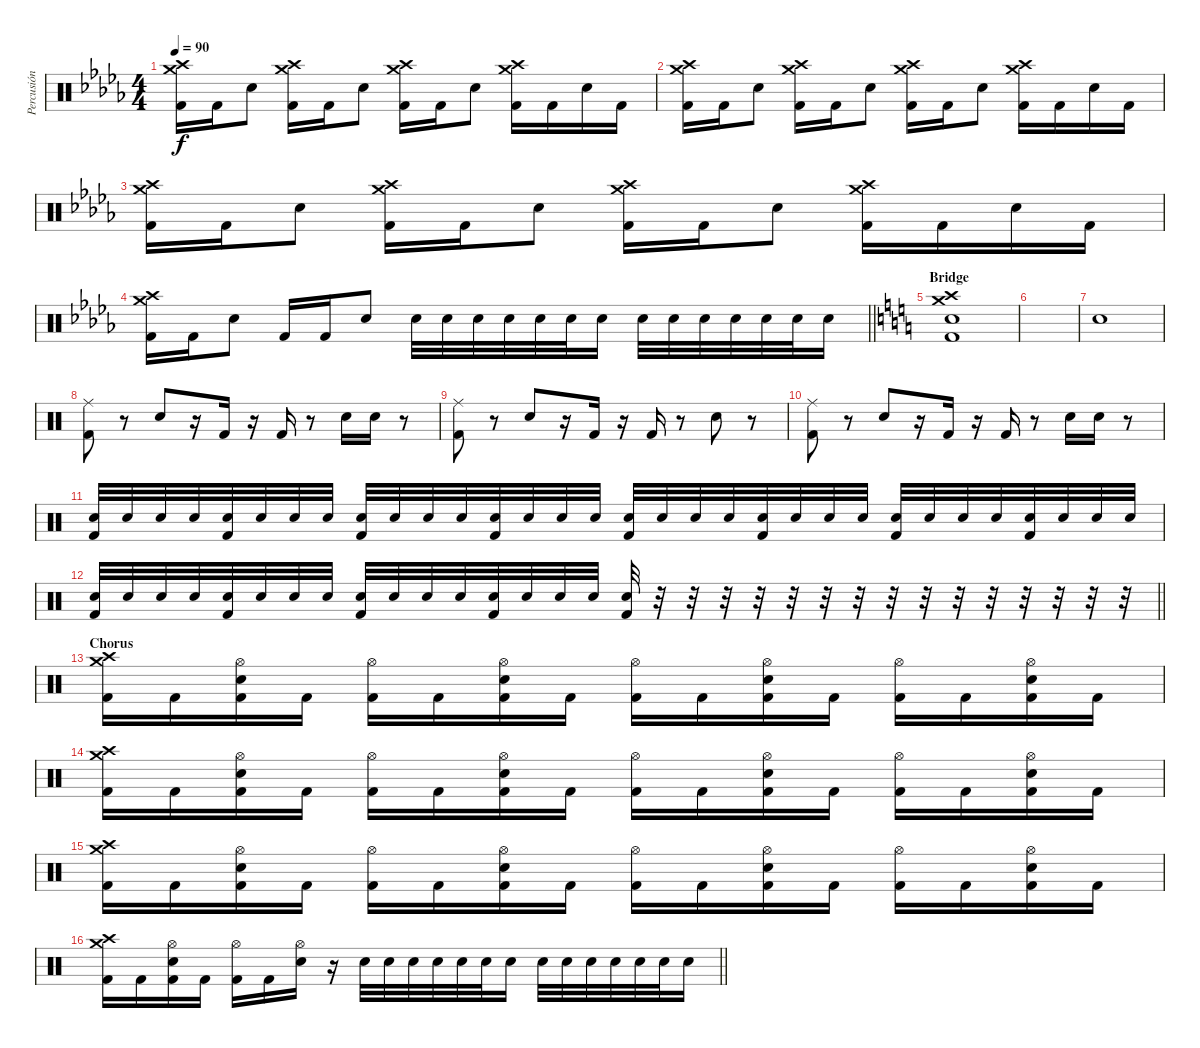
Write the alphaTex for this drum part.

\track ("Percusión" "Percusión") {instrument percussion}
\staff {score}
\articulation defaults
\ts (4 4)
\tempo 90
\clef neutral
\ks db
("Crash high (hit)" "Crash medium (hit)" "Kick (hit) 2").16{dy f} "Kick (hit) 2".16 "Snare (hit) 2".8 ("Crash high (hit)" "Crash medium (hit)" "Kick (hit) 2").16 "Kick (hit) 2".16 "Snare (hit) 2".8 ("Crash high (hit)" "Crash medium (hit)" "Kick (hit) 2").16 "Kick (hit) 2".16 "Snare (hit) 2".8 ("Crash high (hit)" "Crash medium (hit)" "Kick (hit) 2").16 "Kick (hit) 2".16 "Snare (hit) 2".16 "Kick (hit) 2".16 |
("Crash high (hit)" "Crash medium (hit)" "Kick (hit) 2").16 "Kick (hit) 2".16 "Snare (hit) 2".8 ("Crash high (hit)" "Crash medium (hit)" "Kick (hit) 2").16 "Kick (hit) 2".16 "Snare (hit) 2".8 ("Crash high (hit)" "Crash medium (hit)" "Kick (hit) 2").16 "Kick (hit) 2".16 "Snare (hit) 2".8 ("Crash high (hit)" "Crash medium (hit)" "Kick (hit) 2").16 "Kick (hit) 2".16 "Snare (hit) 2".16 "Kick (hit) 2".16 |
("Crash high (hit)" "Crash medium (hit)" "Kick (hit) 2").16 "Kick (hit) 2".16 "Snare (hit) 2".8 ("Crash high (hit)" "Crash medium (hit)" "Kick (hit) 2").16 "Kick (hit) 2".16 "Snare (hit) 2".8 ("Crash high (hit)" "Crash medium (hit)" "Kick (hit) 2").16 "Kick (hit) 2".16 "Snare (hit) 2".8 ("Crash high (hit)" "Crash medium (hit)" "Kick (hit) 2").16 "Kick (hit) 2".16 "Snare (hit) 2".16 "Kick (hit) 2".16 |
\barLineRight lightlight
("Crash high (hit)" "Crash medium (hit)" "Kick (hit) 2").16 "Kick (hit) 2".16 "Snare (hit) 2".8 "Kick (hit) 2".16 "Kick (hit) 2".16 "Snare (hit) 2".8 "Snare (hit) 2".32 "Snare (hit) 2".32 "Snare (hit) 2".32 "Snare (hit) 2".32 "Snare (hit) 2".32 "Snare (hit) 2".32 "Snare (hit) 2".16 "Snare (hit) 2".32 "Snare (hit) 2".32 "Snare (hit) 2".32 "Snare (hit) 2".32 "Snare (hit) 2".32 "Snare (hit) 2".32 "Snare (hit) 2".16 |
\section ("" "Bridge")
\ks c
("Crash high (hit)" "Crash medium (hit)" "Electric Snare (hit)" "Kick (hit) 2").1 |
|
"Snare (hit) 2".1 |
("Ride (middle)" "Kick (hit) 2").8 r.8 "Electric Snare (hit)".8 r.16 "Kick (hit) 2".16 r.16 "Kick (hit) 2".16 r.8 "Electric Snare (hit)".16 "Electric Snare (hit)".16 r.8 |
("Ride (middle)" "Kick (hit) 2").8 r.8 "Electric Snare (hit)".8 r.16 "Kick (hit) 2".16 r.16 "Kick (hit) 2".16 r.8 "Electric Snare (hit)".8 r.8 |
("Ride (middle)" "Kick (hit) 2").8 r.8 "Electric Snare (hit)".8 r.16 "Kick (hit) 2".16 r.16 "Kick (hit) 2".16 r.8 "Electric Snare (hit)".16 "Electric Snare (hit)".16 r.8 |
("Snare (hit) 2" "Kick (hit) 2").32 "Snare (hit) 2".32 "Snare (hit) 2".32 "Snare (hit) 2".32 ("Snare (hit) 2" "Kick (hit) 2").32 "Snare (hit) 2".32 "Snare (hit) 2".32 "Snare (hit) 2".32 ("Snare (hit) 2" "Kick (hit) 2").32 "Snare (hit) 2".32 "Snare (hit) 2".32 "Snare (hit) 2".32 ("Snare (hit) 2" "Kick (hit) 2").32 "Snare (hit) 2".32 "Snare (hit) 2".32 "Snare (hit) 2".32 ("Snare (hit) 2" "Kick (hit) 2").32 "Snare (hit) 2".32 "Snare (hit) 2".32 "Snare (hit) 2".32 ("Snare (hit) 2" "Kick (hit) 2").32 "Snare (hit) 2".32 "Snare (hit) 2".32 "Snare (hit) 2".32 ("Snare (hit) 2" "Kick (hit) 2").32 "Snare (hit) 2".32 "Snare (hit) 2".32 "Snare (hit) 2".32 ("Snare (hit) 2" "Kick (hit) 2").32 "Snare (hit) 2".32 "Snare (hit) 2".32 "Snare (hit) 2".32 |
\barLineRight lightlight
("Snare (hit) 2" "Kick (hit) 2").32 "Snare (hit) 2".32 "Snare (hit) 2".32 "Snare (hit) 2".32 ("Snare (hit) 2" "Kick (hit) 2").32 "Snare (hit) 2".32 "Snare (hit) 2".32 "Snare (hit) 2".32 ("Snare (hit) 2" "Kick (hit) 2").32 "Snare (hit) 2".32 "Snare (hit) 2".32 "Snare (hit) 2".32 ("Snare (hit) 2" "Kick (hit) 2").32 "Snare (hit) 2".32 "Snare (hit) 2".32 "Snare (hit) 2".32 ("Snare (hit) 2" "Kick (hit) 2").32 r.32 r.32 r.32 r.32 r.32 r.32 r.32 r.32 r.32 r.32 r.32 r.32 r.32 r.32 r.32 |
\section ("" "Chorus")
("Crash high (hit)" "Crash medium (hit)" "Kick (hit) 2").16 "Kick (hit) 2".16 ("Hi-Hat (open)" "Electric Snare (hit)" "Kick (hit) 2").16 "Kick (hit) 2".16 ("Hi-Hat (open)" "Kick (hit) 2").16 "Kick (hit) 2".16 ("Hi-Hat (open)" "Electric Snare (hit)" "Kick (hit) 2").16 "Kick (hit) 2".16 ("Hi-Hat (open)" "Kick (hit) 2").16 "Kick (hit) 2".16 ("Hi-Hat (open)" "Electric Snare (hit)" "Kick (hit) 2").16 "Kick (hit) 2".16 ("Hi-Hat (open)" "Kick (hit) 2").16 "Kick (hit) 2".16 ("Hi-Hat (open)" "Electric Snare (hit)" "Kick (hit) 2").16 "Kick (hit) 2".16 |
("Crash high (hit)" "Crash medium (hit)" "Kick (hit) 2").16 "Kick (hit) 2".16 ("Hi-Hat (open)" "Electric Snare (hit)" "Kick (hit) 2").16 "Kick (hit) 2".16 ("Hi-Hat (open)" "Kick (hit) 2").16 "Kick (hit) 2".16 ("Hi-Hat (open)" "Electric Snare (hit)" "Kick (hit) 2").16 "Kick (hit) 2".16 ("Hi-Hat (open)" "Kick (hit) 2").16 "Kick (hit) 2".16 ("Hi-Hat (open)" "Electric Snare (hit)" "Kick (hit) 2").16 "Kick (hit) 2".16 ("Hi-Hat (open)" "Kick (hit) 2").16 "Kick (hit) 2".16 ("Hi-Hat (open)" "Electric Snare (hit)" "Kick (hit) 2").16 "Kick (hit) 2".16 |
("Crash high (hit)" "Crash medium (hit)" "Kick (hit) 2").16 "Kick (hit) 2".16 ("Hi-Hat (open)" "Electric Snare (hit)" "Kick (hit) 2").16 "Kick (hit) 2".16 ("Hi-Hat (open)" "Kick (hit) 2").16 "Kick (hit) 2".16 ("Hi-Hat (open)" "Electric Snare (hit)" "Kick (hit) 2").16 "Kick (hit) 2".16 ("Hi-Hat (open)" "Kick (hit) 2").16 "Kick (hit) 2".16 ("Hi-Hat (open)" "Electric Snare (hit)" "Kick (hit) 2").16 "Kick (hit) 2".16 ("Hi-Hat (open)" "Kick (hit) 2").16 "Kick (hit) 2".16 ("Hi-Hat (open)" "Electric Snare (hit)" "Kick (hit) 2").16 "Kick (hit) 2".16 |
\barLineRight lightlight
("Crash high (hit)" "Crash medium (hit)" "Kick (hit) 2").16 "Kick (hit) 2".16 ("Hi-Hat (open)" "Electric Snare (hit)" "Kick (hit) 2").16 "Kick (hit) 2".16 ("Hi-Hat (open)" "Kick (hit) 2").16 "Kick (hit) 2".16 ("Hi-Hat (open)" "Electric Snare (hit)").16 r.16 "Snare (hit) 2".32 "Snare (hit) 2".32 "Snare (hit) 2".32 "Snare (hit) 2".32 "Snare (hit) 2".32 "Snare (hit) 2".32 "Snare (hit) 2".16 "Snare (hit) 2".32 "Snare (hit) 2".32 "Snare (hit) 2".32 "Snare (hit) 2".32 "Snare (hit) 2".32 "Snare (hit) 2".32 "Snare (hit) 2".16
